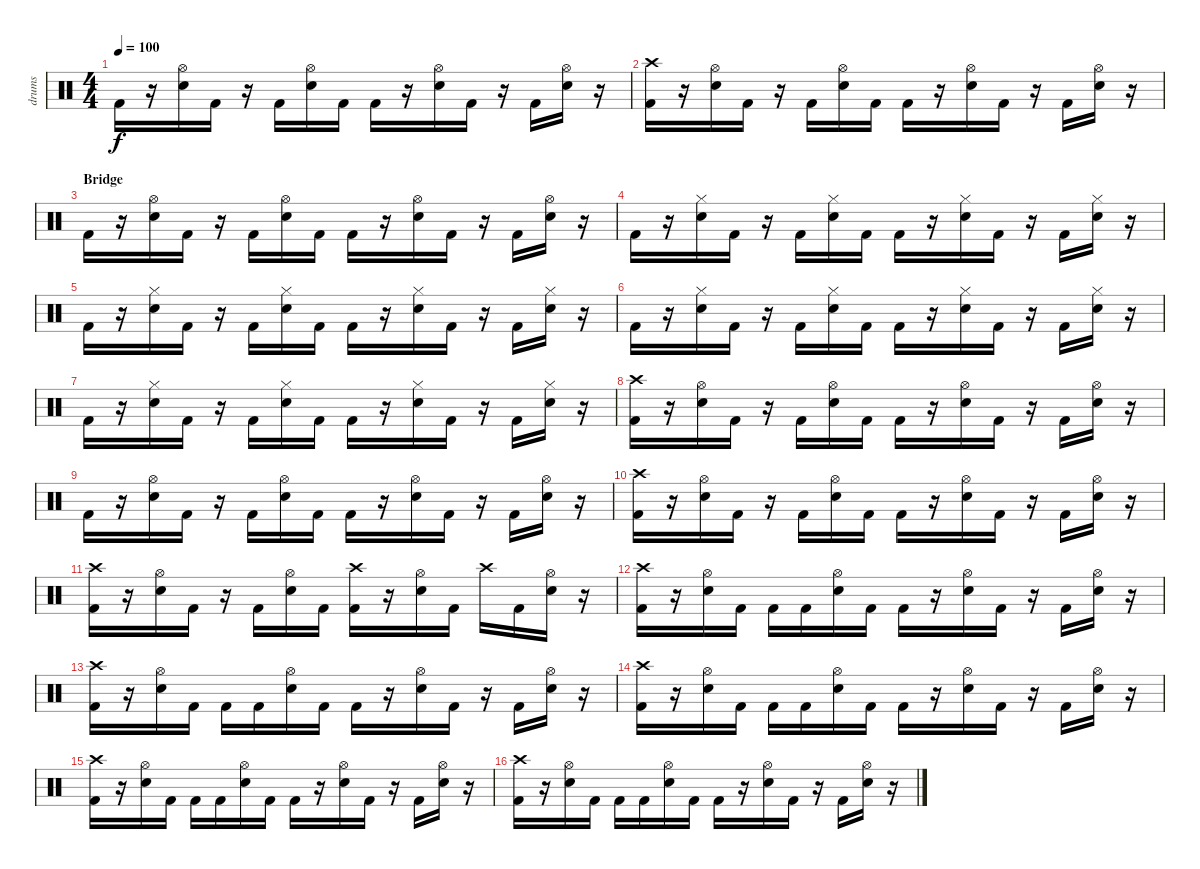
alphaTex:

\track ("drums" "drums") {instrument percussion}
\staff {score}
\articulation defaults
\ts (4 4)
\tempo 100
\clef neutral
\ks c "Kick (hit) 2".16{dy f}
r.16 ("Hi-Hat (open)" "Electric Snare (hit)").16 "Kick (hit) 2".16 r.16 "Kick (hit) 2".16 ("Hi-Hat (open)" "Electric Snare (hit)").16 "Kick (hit) 2".16 "Kick (hit) 2".16 r.16 ("Hi-Hat (open)" "Electric Snare (hit)").16 "Kick (hit) 2".16 r.16 "Kick (hit) 2".16 ("Hi-Hat (open)" "Electric Snare (hit)").16 r.16 |
("Crash high (hit)" "Kick (hit) 2").16 r.16 ("Hi-Hat (open)" "Electric Snare (hit)").16 "Kick (hit) 2".16 r.16 "Kick (hit) 2".16 ("Hi-Hat (open)" "Electric Snare (hit)").16 "Kick (hit) 2".16 "Kick (hit) 2".16 r.16 ("Hi-Hat (open)" "Electric Snare (hit)").16 "Kick (hit) 2".16 r.16 "Kick (hit) 2".16 ("Hi-Hat (open)" "Electric Snare (hit)").16 r.16 |
\section ("" "Bridge")
"Kick (hit) 2".16 r.16 ("Hi-Hat (open)" "Electric Snare (hit)").16 "Kick (hit) 2".16 r.16 "Kick (hit) 2".16 ("Hi-Hat (open)" "Electric Snare (hit)").16 "Kick (hit) 2".16 "Kick (hit) 2".16 r.16 ("Hi-Hat (open)" "Electric Snare (hit)").16 "Kick (hit) 2".16 r.16 "Kick (hit) 2".16 ("Hi-Hat (open)" "Electric Snare (hit)").16 r.16 |
"Kick (hit) 2".16 r.16 ("Hi-Hat (closed)" "Electric Snare (hit)").16 "Kick (hit) 2".16 r.16 "Kick (hit) 2".16 ("Hi-Hat (closed)" "Electric Snare (hit)").16 "Kick (hit) 2".16 "Kick (hit) 2".16 r.16 ("Hi-Hat (closed)" "Electric Snare (hit)").16 "Kick (hit) 2".16 r.16 "Kick (hit) 2".16 ("Hi-Hat (closed)" "Electric Snare (hit)").16 r.16 |
"Kick (hit) 2".16 r.16 ("Hi-Hat (closed)" "Electric Snare (hit)").16 "Kick (hit) 2".16 r.16 "Kick (hit) 2".16 ("Hi-Hat (closed)" "Electric Snare (hit)").16 "Kick (hit) 2".16 "Kick (hit) 2".16 r.16 ("Hi-Hat (closed)" "Electric Snare (hit)").16 "Kick (hit) 2".16 r.16 "Kick (hit) 2".16 ("Hi-Hat (closed)" "Electric Snare (hit)").16 r.16 |
"Kick (hit) 2".16 r.16 ("Hi-Hat (closed)" "Electric Snare (hit)").16 "Kick (hit) 2".16 r.16 "Kick (hit) 2".16 ("Hi-Hat (closed)" "Electric Snare (hit)").16 "Kick (hit) 2".16 "Kick (hit) 2".16 r.16 ("Hi-Hat (closed)" "Electric Snare (hit)").16 "Kick (hit) 2".16 r.16 "Kick (hit) 2".16 ("Hi-Hat (closed)" "Electric Snare (hit)").16 r.16 |
"Kick (hit) 2".16 r.16 ("Hi-Hat (closed)" "Electric Snare (hit)").16 "Kick (hit) 2".16 r.16 "Kick (hit) 2".16 ("Hi-Hat (closed)" "Electric Snare (hit)").16 "Kick (hit) 2".16 "Kick (hit) 2".16 r.16 ("Hi-Hat (closed)" "Electric Snare (hit)").16 "Kick (hit) 2".16 r.16 "Kick (hit) 2".16 ("Hi-Hat (closed)" "Electric Snare (hit)").16 r.16 |
("Crash high (hit)" "Kick (hit) 2").16 r.16 ("Hi-Hat (open)" "Electric Snare (hit)").16 "Kick (hit) 2".16 r.16 "Kick (hit) 2".16 ("Hi-Hat (open)" "Electric Snare (hit)").16 "Kick (hit) 2".16 "Kick (hit) 2".16 r.16 ("Hi-Hat (open)" "Electric Snare (hit)").16 "Kick (hit) 2".16 r.16 "Kick (hit) 2".16 ("Hi-Hat (open)" "Electric Snare (hit)").16 r.16 |
"Kick (hit) 2".16 r.16 ("Hi-Hat (open)" "Electric Snare (hit)").16 "Kick (hit) 2".16 r.16 "Kick (hit) 2".16 ("Hi-Hat (open)" "Electric Snare (hit)").16 "Kick (hit) 2".16 "Kick (hit) 2".16 r.16 ("Hi-Hat (open)" "Electric Snare (hit)").16 "Kick (hit) 2".16 r.16 "Kick (hit) 2".16 ("Hi-Hat (open)" "Electric Snare (hit)").16 r.16 |
("Crash high (hit)" "Kick (hit) 2").16 r.16 ("Hi-Hat (open)" "Electric Snare (hit)").16 "Kick (hit) 2".16 r.16 "Kick (hit) 2".16 ("Hi-Hat (open)" "Electric Snare (hit)").16 "Kick (hit) 2".16 "Kick (hit) 2".16 r.16 ("Hi-Hat (open)" "Electric Snare (hit)").16 "Kick (hit) 2".16 r.16 "Kick (hit) 2".16 ("Hi-Hat (open)" "Electric Snare (hit)").16 r.16 |
("Crash high (hit)" "Kick (hit) 2").16 r.16 ("Hi-Hat (open)" "Electric Snare (hit)").16 "Kick (hit) 2".16 r.16 "Kick (hit) 2".16 ("Hi-Hat (open)" "Electric Snare (hit)").16 "Kick (hit) 2".16 ("Crash high (hit)" "Kick (hit) 2").16 r.16 ("Hi-Hat (open)" "Electric Snare (hit)").16 "Kick (hit) 2".16 "Crash high (hit)".16 "Kick (hit) 2".16 ("Hi-Hat (open)" "Electric Snare (hit)").16 r.16 |
("Crash high (hit)" "Kick (hit) 2").16 r.16 ("Hi-Hat (open)" "Electric Snare (hit)").16 "Kick (hit) 2".16 "Kick (hit) 2".16 "Kick (hit) 2".16 ("Hi-Hat (open)" "Electric Snare (hit)").16 "Kick (hit) 2".16 "Kick (hit) 2".16 r.16 ("Hi-Hat (open)" "Electric Snare (hit)").16 "Kick (hit) 2".16 r.16 "Kick (hit) 2".16 ("Hi-Hat (open)" "Electric Snare (hit)").16 r.16 |
("Crash high (hit)" "Kick (hit) 2").16 r.16 ("Hi-Hat (open)" "Electric Snare (hit)").16 "Kick (hit) 2".16 "Kick (hit) 2".16 "Kick (hit) 2".16 ("Hi-Hat (open)" "Electric Snare (hit)").16 "Kick (hit) 2".16 "Kick (hit) 2".16 r.16 ("Hi-Hat (open)" "Electric Snare (hit)").16 "Kick (hit) 2".16 r.16 "Kick (hit) 2".16 ("Hi-Hat (open)" "Electric Snare (hit)").16 r.16 |
("Crash high (hit)" "Kick (hit) 2").16 r.16 ("Hi-Hat (open)" "Electric Snare (hit)").16 "Kick (hit) 2".16 "Kick (hit) 2".16 "Kick (hit) 2".16 ("Hi-Hat (open)" "Electric Snare (hit)").16 "Kick (hit) 2".16 "Kick (hit) 2".16 r.16 ("Hi-Hat (open)" "Electric Snare (hit)").16 "Kick (hit) 2".16 r.16 "Kick (hit) 2".16 ("Hi-Hat (open)" "Electric Snare (hit)").16 r.16 |
("Crash high (hit)" "Kick (hit) 2").16 r.16 ("Hi-Hat (open)" "Electric Snare (hit)").16 "Kick (hit) 2".16 "Kick (hit) 2".16 "Kick (hit) 2".16 ("Hi-Hat (open)" "Electric Snare (hit)").16 "Kick (hit) 2".16 "Kick (hit) 2".16 r.16 ("Hi-Hat (open)" "Electric Snare (hit)").16 "Kick (hit) 2".16 r.16 "Kick (hit) 2".16 ("Hi-Hat (open)" "Electric Snare (hit)").16 r.16 |
("Crash high (hit)" "Kick (hit) 2").16 r.16 ("Hi-Hat (open)" "Electric Snare (hit)").16 "Kick (hit) 2".16 "Kick (hit) 2".16 "Kick (hit) 2".16 ("Hi-Hat (open)" "Electric Snare (hit)").16 "Kick (hit) 2".16 "Kick (hit) 2".16 r.16 ("Hi-Hat (open)" "Electric Snare (hit)").16 "Kick (hit) 2".16 r.16 "Kick (hit) 2".16 ("Hi-Hat (open)" "Electric Snare (hit)").16 r.16
